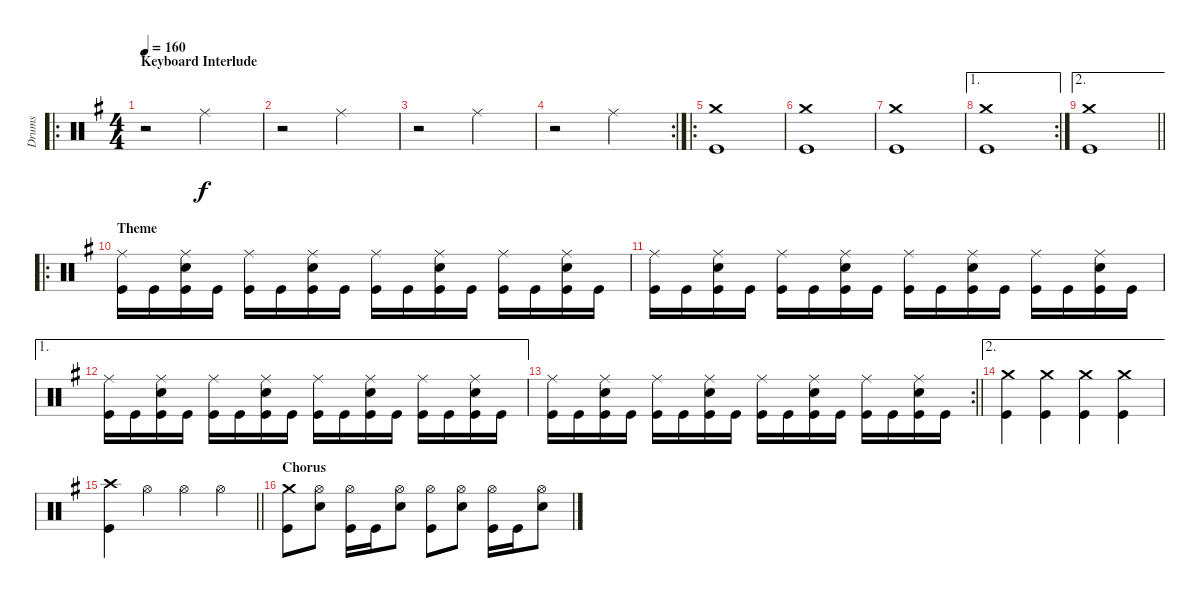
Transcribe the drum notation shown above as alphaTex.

\track ("Drums" "Drums") {instrument percussion}
\staff {score}
\articulation defaults
\ro
\ts (4 4)
\section ("" "Keyboard Interlude")
\tempo 160
\clef neutral
\ks eminor
r.2{dy f} "Ride (middle)".2 |
r.2 "Ride (middle)".2 |
r.2 "Ride (middle)".2 |
\rc 2
r.2 "Ride (middle)".2 |
\ro
("Crash medium (hit)" "Kick (hit)").1 |
("Crash medium (hit)" "Kick (hit)").1 |
("Crash medium (hit)" "Kick (hit)").1 |
\ae 1
\rc 2
("Crash medium (hit)" "Kick (hit)").1 |
\ae 2
\barLineRight lightlight
("Crash medium (hit)" "Kick (hit)").1 |
\ro
\section ("" "Theme")
("Ride (middle)" "Kick (hit)").16 "Kick (hit)".16 ("Ride (middle)" "Snare (hit) 2" "Kick (hit)").16 "Kick (hit)".16 ("Ride (middle)" "Kick (hit)").16 "Kick (hit)".16 ("Ride (middle)" "Snare (hit) 2" "Kick (hit)").16 "Kick (hit)".16 ("Ride (middle)" "Kick (hit)").16 "Kick (hit)".16 ("Ride (middle)" "Snare (hit) 2" "Kick (hit)").16 "Kick (hit)".16 ("Ride (middle)" "Kick (hit)").16 "Kick (hit)".16 ("Ride (middle)" "Snare (hit) 2" "Kick (hit)").16 "Kick (hit)".16 |
("Ride (middle)" "Kick (hit)").16 "Kick (hit)".16 ("Ride (middle)" "Snare (hit) 2" "Kick (hit)").16 "Kick (hit)".16 ("Ride (middle)" "Kick (hit)").16 "Kick (hit)".16 ("Ride (middle)" "Snare (hit) 2" "Kick (hit)").16 "Kick (hit)".16 ("Ride (middle)" "Kick (hit)").16 "Kick (hit)".16 ("Ride (middle)" "Snare (hit) 2" "Kick (hit)").16 "Kick (hit)".16 ("Ride (middle)" "Kick (hit)").16 "Kick (hit)".16 ("Ride (middle)" "Snare (hit) 2" "Kick (hit)").16 "Kick (hit)".16 |
\ae 1
("Ride (middle)" "Kick (hit)").16 "Kick (hit)".16 ("Ride (middle)" "Snare (hit) 2" "Kick (hit)").16 "Kick (hit)".16 ("Ride (middle)" "Kick (hit)").16 "Kick (hit)".16 ("Ride (middle)" "Snare (hit) 2" "Kick (hit)").16 "Kick (hit)".16 ("Ride (middle)" "Kick (hit)").16 "Kick (hit)".16 ("Ride (middle)" "Snare (hit) 2" "Kick (hit)").16 "Kick (hit)".16 ("Ride (middle)" "Kick (hit)").16 "Kick (hit)".16 ("Ride (middle)" "Snare (hit) 2" "Kick (hit)").16 "Kick (hit)".16 |
\rc 2
\barLineRight lightlight
("Ride (middle)" "Kick (hit)").16 "Kick (hit)".16 ("Ride (middle)" "Snare (hit) 2" "Kick (hit)").16 "Kick (hit)".16 ("Ride (middle)" "Kick (hit)").16 "Kick (hit)".16 ("Ride (middle)" "Snare (hit) 2" "Kick (hit)").16 "Kick (hit)".16 ("Ride (middle)" "Kick (hit)").16 "Kick (hit)".16 ("Ride (middle)" "Snare (hit) 2" "Kick (hit)").16 "Kick (hit)".16 ("Ride (middle)" "Kick (hit)").16 "Kick (hit)".16 ("Ride (middle)" "Snare (hit) 2" "Kick (hit)").16 "Kick (hit)".16 |
\ae 2
("Crash medium (hit)" "Kick (hit)").4 ("Crash medium (hit)" "Kick (hit)").4 ("Crash medium (hit)" "Kick (hit)").4 ("Crash medium (hit)" "Kick (hit)").4 |
\barLineRight lightlight
("Crash high (hit)" "Kick (hit)").4 "Hi-Hat (open)".4 "Hi-Hat (open)".4 "Hi-Hat (open)".4 |
\section ("" "Chorus")
("Crash medium (hit)" "Kick (hit)").8 ("Hi-Hat (open)" "Snare (hit) 2").8 ("Hi-Hat (open)" "Kick (hit)").16 "Kick (hit)".16 ("Hi-Hat (open)" "Snare (hit) 2").8 ("Hi-Hat (open)" "Kick (hit)").8 ("Hi-Hat (open)" "Snare (hit) 2").8 ("Hi-Hat (open)" "Kick (hit)").16 "Kick (hit)".16 ("Hi-Hat (open)" "Snare (hit) 2").8
